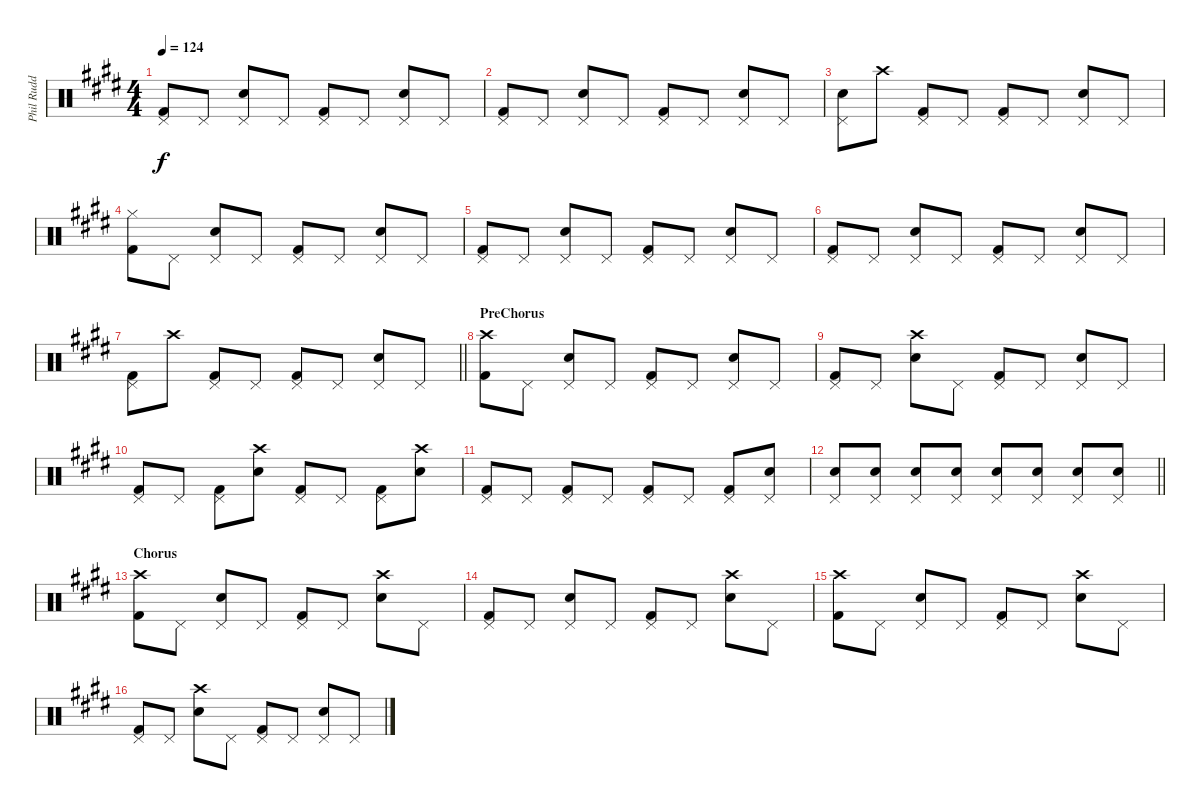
\track ("Phil Rudd (Drums)" "Phil Rudd ") {instrument percussion}
\staff {score}
\articulation defaults
\ts (4 4)
\tempo 124
\clef neutral
\ks e
("Pedal Hi-Hat (hit)" "Kick (hit) 2").8{dy f} "Pedal Hi-Hat (hit)".8 ("Pedal Hi-Hat (hit)" "Snare (hit) 2").8 "Pedal Hi-Hat (hit)".8 ("Pedal Hi-Hat (hit)" "Kick (hit) 2").8 "Pedal Hi-Hat (hit)".8 ("Pedal Hi-Hat (hit)" "Snare (hit) 2").8 "Pedal Hi-Hat (hit)".8 |
("Pedal Hi-Hat (hit)" "Kick (hit) 2").8 "Pedal Hi-Hat (hit)".8 ("Pedal Hi-Hat (hit)" "Snare (hit) 2").8 "Pedal Hi-Hat (hit)".8 ("Pedal Hi-Hat (hit)" "Kick (hit) 2").8 "Pedal Hi-Hat (hit)".8 ("Pedal Hi-Hat (hit)" "Snare (hit) 2").8 "Pedal Hi-Hat (hit)".8 |
("Pedal Hi-Hat (hit)" "Snare (hit) 2").8 "Crash high (hit)".8 ("Pedal Hi-Hat (hit)" "Kick (hit) 2").8 "Pedal Hi-Hat (hit)".8 ("Pedal Hi-Hat (hit)" "Kick (hit) 2").8 "Pedal Hi-Hat (hit)".8 ("Pedal Hi-Hat (hit)" "Snare (hit) 2").8 "Pedal Hi-Hat (hit)".8 |
("Hi-Hat (closed)" "Kick (hit) 2").8 "Pedal Hi-Hat (hit)".8 ("Pedal Hi-Hat (hit)" "Snare (hit) 2").8 "Pedal Hi-Hat (hit)".8 ("Pedal Hi-Hat (hit)" "Kick (hit) 2").8 "Pedal Hi-Hat (hit)".8 ("Pedal Hi-Hat (hit)" "Snare (hit) 2").8 "Pedal Hi-Hat (hit)".8 |
("Pedal Hi-Hat (hit)" "Kick (hit) 2").8 "Pedal Hi-Hat (hit)".8 ("Pedal Hi-Hat (hit)" "Snare (hit) 2").8 "Pedal Hi-Hat (hit)".8 ("Pedal Hi-Hat (hit)" "Kick (hit) 2").8 "Pedal Hi-Hat (hit)".8 ("Pedal Hi-Hat (hit)" "Snare (hit) 2").8 "Pedal Hi-Hat (hit)".8 |
("Pedal Hi-Hat (hit)" "Kick (hit) 2").8 "Pedal Hi-Hat (hit)".8 ("Pedal Hi-Hat (hit)" "Snare (hit) 2").8 "Pedal Hi-Hat (hit)".8 ("Pedal Hi-Hat (hit)" "Kick (hit) 2").8 "Pedal Hi-Hat (hit)".8 ("Pedal Hi-Hat (hit)" "Snare (hit) 2").8 "Pedal Hi-Hat (hit)".8 |
\barLineRight lightlight
("Pedal Hi-Hat (hit)" "Kick (hit) 2").8 "Crash high (hit)".8 ("Pedal Hi-Hat (hit)" "Kick (hit) 2").8 "Pedal Hi-Hat (hit)".8 ("Pedal Hi-Hat (hit)" "Kick (hit) 2").8 "Pedal Hi-Hat (hit)".8 ("Pedal Hi-Hat (hit)" "Snare (hit) 2").8 "Pedal Hi-Hat (hit)".8 |
\section ("" "PreChorus")
("Crash high (hit)" "Kick (hit) 2").8 "Pedal Hi-Hat (hit)".8 ("Pedal Hi-Hat (hit)" "Snare (hit) 2").8 "Pedal Hi-Hat (hit)".8 ("Pedal Hi-Hat (hit)" "Kick (hit) 2").8 "Pedal Hi-Hat (hit)".8 ("Pedal Hi-Hat (hit)" "Snare (hit) 2").8 "Pedal Hi-Hat (hit)".8 |
("Pedal Hi-Hat (hit)" "Kick (hit) 2").8 "Pedal Hi-Hat (hit)".8 ("Crash high (hit)" "Snare (hit) 2").8 "Pedal Hi-Hat (hit)".8 ("Pedal Hi-Hat (hit)" "Kick (hit) 2").8 "Pedal Hi-Hat (hit)".8 ("Pedal Hi-Hat (hit)" "Snare (hit) 2").8 "Pedal Hi-Hat (hit)".8 |
("Pedal Hi-Hat (hit)" "Kick (hit) 2").8 "Pedal Hi-Hat (hit)".8 ("Pedal Hi-Hat (hit)" "Kick (hit) 2").8 ("Crash high (hit)" "Snare (hit) 2").8 ("Pedal Hi-Hat (hit)" "Kick (hit) 2").8 "Pedal Hi-Hat (hit)".8 ("Pedal Hi-Hat (hit)" "Kick (hit) 2").8 ("Crash high (hit)" "Snare (hit) 2").8 |
("Pedal Hi-Hat (hit)" "Kick (hit) 2").8 "Pedal Hi-Hat (hit)".8 ("Pedal Hi-Hat (hit)" "Kick (hit) 2").8 "Pedal Hi-Hat (hit)".8 ("Pedal Hi-Hat (hit)" "Kick (hit) 2").8 "Pedal Hi-Hat (hit)".8 ("Pedal Hi-Hat (hit)" "Kick (hit) 2").8 ("Pedal Hi-Hat (hit)" "Snare (hit) 2").8 |
\barLineRight lightlight
("Pedal Hi-Hat (hit)" "Snare (hit) 2").8 ("Pedal Hi-Hat (hit)" "Snare (hit) 2").8 ("Pedal Hi-Hat (hit)" "Snare (hit) 2").8 ("Pedal Hi-Hat (hit)" "Snare (hit) 2").8 ("Pedal Hi-Hat (hit)" "Snare (hit) 2").8 ("Pedal Hi-Hat (hit)" "Snare (hit) 2").8 ("Pedal Hi-Hat (hit)" "Snare (hit) 2").8 ("Pedal Hi-Hat (hit)" "Snare (hit) 2").8 |
\section ("" "Chorus")
("Crash high (hit)" "Kick (hit) 2").8 "Pedal Hi-Hat (hit)".8 ("Pedal Hi-Hat (hit)" "Snare (hit) 2").8 "Pedal Hi-Hat (hit)".8 ("Pedal Hi-Hat (hit)" "Kick (hit) 2").8 "Pedal Hi-Hat (hit)".8 ("Crash high (hit)" "Snare (hit) 2").8 "Pedal Hi-Hat (hit)".8 |
("Pedal Hi-Hat (hit)" "Kick (hit) 2").8 "Pedal Hi-Hat (hit)".8 ("Pedal Hi-Hat (hit)" "Snare (hit) 2").8 "Pedal Hi-Hat (hit)".8 ("Pedal Hi-Hat (hit)" "Kick (hit) 2").8 "Pedal Hi-Hat (hit)".8 ("Crash high (hit)" "Snare (hit) 2").8 "Pedal Hi-Hat (hit)".8 |
("Crash high (hit)" "Kick (hit) 2").8 "Pedal Hi-Hat (hit)".8 ("Pedal Hi-Hat (hit)" "Snare (hit) 2").8 "Pedal Hi-Hat (hit)".8 ("Pedal Hi-Hat (hit)" "Kick (hit) 2").8 "Pedal Hi-Hat (hit)".8 ("Crash high (hit)" "Snare (hit) 2").8 "Pedal Hi-Hat (hit)".8 |
("Pedal Hi-Hat (hit)" "Kick (hit) 2").8 "Pedal Hi-Hat (hit)".8 ("Crash high (hit)" "Snare (hit) 2").8 "Pedal Hi-Hat (hit)".8 ("Pedal Hi-Hat (hit)" "Kick (hit) 2").8 "Pedal Hi-Hat (hit)".8 ("Pedal Hi-Hat (hit)" "Snare (hit) 2").8 "Pedal Hi-Hat (hit)".8
